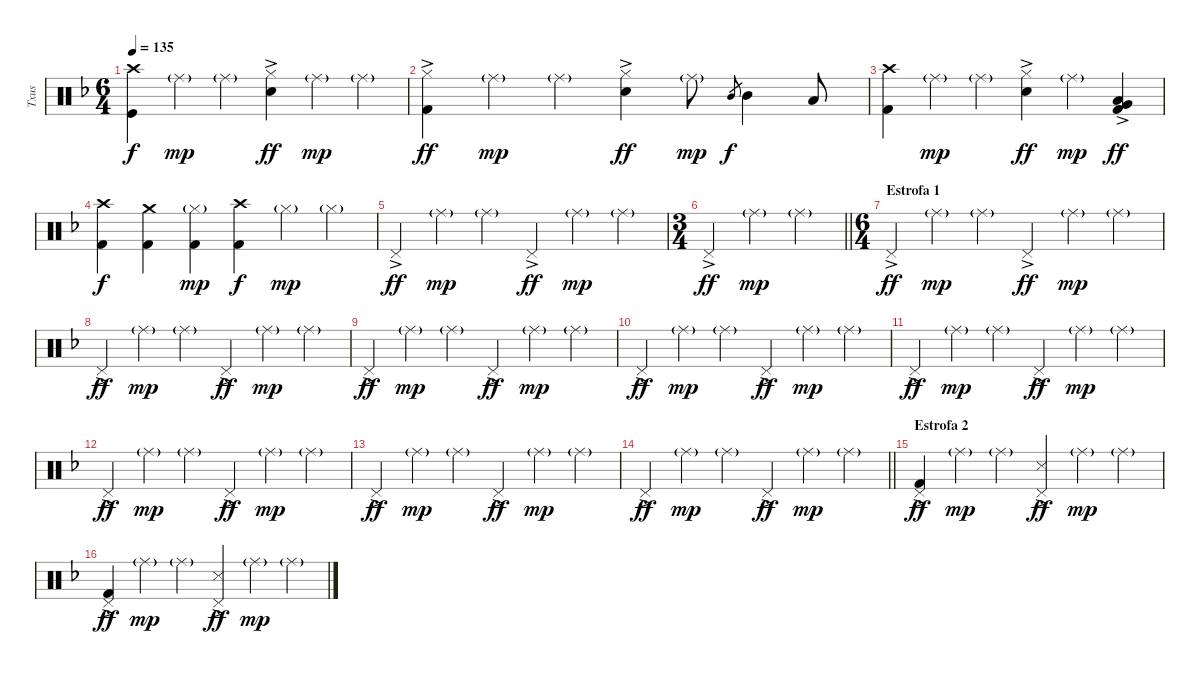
\track ("Txus" "Txus") {instrument percussion}
\staff {score}
\articulation defaults
\ts (6 4)
\tempo 135
\clef neutral
\ks dminor
("Crash high (hit)" "Kick (hit)").4{dy f} "Ride (middle)"{g}.4{dy mp} "Ride (middle)"{g}.4 ("Hi-Hat (closed)"{ac} "Snare (hit) 2").4{dy ff} "Ride (middle)"{g}.4{dy mp} "Ride (middle)"{g}.4 |
("Hi-Hat (closed)"{ac} "Kick (hit) 2").4{dy ff} "Ride (middle)"{g}.4{dy mp} "Ride (middle)"{g}.4 ("Hi-Hat (closed)"{ac} "Snare (hit) 2").4{dy ff} "Ride (middle)"{g}.8{dy mp} "Mid Tom (hit)".8{gr dy f} "Mid Tom (hit)".4 "Low Tom (hit)".8 |
("Crash high (hit)" "Kick (hit) 2").4 "Ride (middle)"{g}.4{dy mp} "Ride (middle)"{g}.4 ("Hi-Hat (closed)"{ac} "Snare (hit) 2").4{dy ff} "Ride (middle)"{g}.4{dy mp} ("Low Tom (hit)"{ac} "Very Low Tom (hit)"{ac} "Kick (hit) 2"{ac}).4{dy ff} |
("Crash high (hit)" "Kick (hit) 2").4{dy f} ("Crash medium (hit)" "Kick (hit) 2").4 ("Hi-Hat (closed)"{g} "Kick (hit) 2").4{dy mp} ("Crash high (hit)" "Kick (hit) 2").4{dy f} "Hi-Hat (closed)"{g}.4{dy mp} "Hi-Hat (closed)"{g}.4 |
"Pedal Hi-Hat (hit)"{ac}.4{dy ff} "Ride (middle)"{g}.4{dy mp} "Ride (middle)"{g}.4 "Pedal Hi-Hat (hit)"{ac}.4{dy ff} "Ride (middle)"{g}.4{dy mp} "Ride (middle)"{g}.4 |
\ts (3 4)
\barLineRight lightlight "Pedal Hi-Hat (hit)"{ac}.4{dy ff} "Ride (middle)"{g}.4{dy mp} "Ride (middle)"{g}.4
|
\ts (6 4)
\section ("" "Estrofa 1")
"Pedal Hi-Hat (hit)"{ac}.4{dy ff} "Ride (middle)"{g}.4{dy mp} "Ride (middle)"{g}.4 "Pedal Hi-Hat (hit)"{ac}.4{dy ff} "Ride (middle)"{g}.4{dy mp} "Ride (middle)"{g}.4 |
"Pedal Hi-Hat (hit)"{ac}.4{dy ff} "Ride (middle)"{g}.4{dy mp} "Ride (middle)"{g}.4 "Pedal Hi-Hat (hit)"{ac}.4{dy ff} "Ride (middle)"{g}.4{dy mp} "Ride (middle)"{g}.4 |
"Pedal Hi-Hat (hit)"{ac}.4{dy ff} "Ride (middle)"{g}.4{dy mp} "Ride (middle)"{g}.4 "Pedal Hi-Hat (hit)"{ac}.4{dy ff} "Ride (middle)"{g}.4{dy mp} "Ride (middle)"{g}.4 |
"Pedal Hi-Hat (hit)"{ac}.4{dy ff} "Ride (middle)"{g}.4{dy mp} "Ride (middle)"{g}.4 "Pedal Hi-Hat (hit)"{ac}.4{dy ff} "Ride (middle)"{g}.4{dy mp} "Ride (middle)"{g}.4 |
"Pedal Hi-Hat (hit)"{ac}.4{dy ff} "Ride (middle)"{g}.4{dy mp} "Ride (middle)"{g}.4 "Pedal Hi-Hat (hit)"{ac}.4{dy ff} "Ride (middle)"{g}.4{dy mp} "Ride (middle)"{g}.4 |
"Pedal Hi-Hat (hit)"{ac}.4{dy ff} "Ride (middle)"{g}.4{dy mp} "Ride (middle)"{g}.4 "Pedal Hi-Hat (hit)"{ac}.4{dy ff} "Ride (middle)"{g}.4{dy mp} "Ride (middle)"{g}.4 |
"Pedal Hi-Hat (hit)"{ac}.4{dy ff} "Ride (middle)"{g}.4{dy mp} "Ride (middle)"{g}.4 "Pedal Hi-Hat (hit)"{ac}.4{dy ff} "Ride (middle)"{g}.4{dy mp} "Ride (middle)"{g}.4 |
\barLineRight lightlight "Pedal Hi-Hat (hit)"{ac}.4{dy ff} "Ride (middle)"{g}.4{dy mp} "Ride (middle)"{g}.4 "Pedal Hi-Hat (hit)"{ac}.4{dy ff} "Ride (middle)"{g}.4{dy mp} "Ride (middle)"{g}.4
|
\section ("" "Estrofa 2")
("Pedal Hi-Hat (hit)"{ac} "Kick (hit) 2").4{dy ff} "Ride (middle)"{g}.4{dy mp} "Ride (middle)"{g}.4 ("Pedal Hi-Hat (hit)"{ac} "Snare (side stick) 3").4{dy ff} "Ride (middle)"{g}.4{dy mp} "Ride (middle)"{g}.4 |
("Pedal Hi-Hat (hit)"{ac} "Kick (hit) 2").4{dy ff} "Ride (middle)"{g}.4{dy mp} "Ride (middle)"{g}.4 ("Pedal Hi-Hat (hit)"{ac} "Snare (side stick) 3").4{dy ff} "Ride (middle)"{g}.4{dy mp} "Ride (middle)"{g}.4
